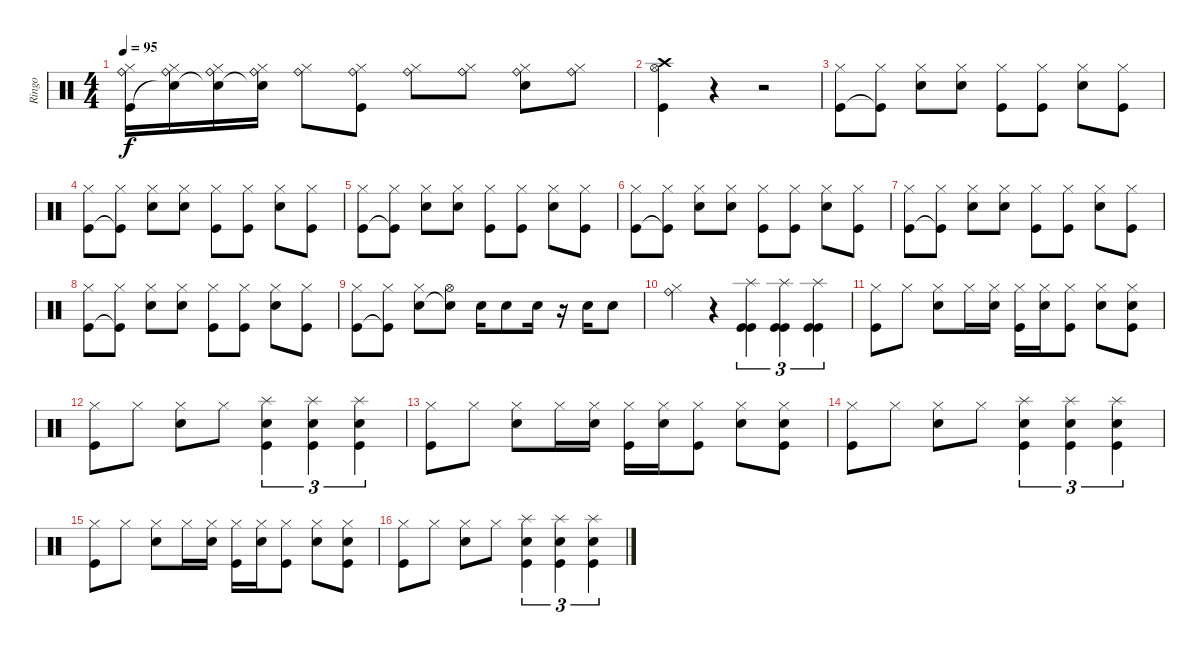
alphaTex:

\track ("Ringo" "Ringo") {instrument percussion}
\staff {score}
\articulation defaults
\ts (4 4)
\tempo 95
\clef neutral
\ks c
("Ride (bell)" "Hi-Hat (closed)" "Kick (hit)").16{dy f} ("Ride (bell)" "Hi-Hat (closed)" "Snare (hit)"{t}).16 ("Ride (bell)" "Hi-Hat (closed)" "Snare (hit)"{t}).16 ("Ride (bell)" "Hi-Hat (closed)" "Snare (hit)"{t}).16 ("Ride (bell)" "Hi-Hat (closed)").8 ("Ride (bell)" "Hi-Hat (closed)" "Kick (hit)").8 ("Ride (bell)" "Hi-Hat (closed)").8 ("Ride (bell)" "Hi-Hat (closed)").8 ("Ride (bell)" "Hi-Hat (closed)" "Snare (hit) 2").8 ("Ride (bell)" "Hi-Hat (closed)").8 |
("Crash high (hit)" "Hi-Hat (open)" "Kick (hit)").4 r.4 r.2 |
("Hi-Hat (closed)" "Kick (hit)").8 ("Hi-Hat (closed)" "Kick (hit)"{t}).8 ("Hi-Hat (closed)" "Snare (hit) 2").8 ("Hi-Hat (closed)" "Snare (hit) 2").8 ("Hi-Hat (closed)" "Kick (hit)").8 ("Hi-Hat (closed)" "Kick (hit)").8 ("Hi-Hat (closed)" "Snare (hit) 2").8 ("Hi-Hat (closed)" "Kick (hit)").8 |
("Hi-Hat (closed)" "Kick (hit)").8 ("Hi-Hat (closed)" "Kick (hit)"{t}).8 ("Hi-Hat (closed)" "Snare (hit) 2").8 ("Hi-Hat (closed)" "Snare (hit) 2").8 ("Hi-Hat (closed)" "Kick (hit)").8 ("Hi-Hat (closed)" "Kick (hit)").8 ("Hi-Hat (closed)" "Snare (hit) 2").8 ("Hi-Hat (closed)" "Kick (hit)").8 |
("Hi-Hat (closed)" "Kick (hit)").8 ("Hi-Hat (closed)" "Kick (hit)"{t}).8 ("Hi-Hat (closed)" "Snare (hit) 2").8 ("Hi-Hat (closed)" "Snare (hit) 2").8 ("Hi-Hat (closed)" "Kick (hit)").8 ("Hi-Hat (closed)" "Kick (hit)").8 ("Hi-Hat (closed)" "Snare (hit) 2").8 ("Hi-Hat (closed)" "Kick (hit)").8 |
("Hi-Hat (closed)" "Kick (hit)").8 ("Hi-Hat (closed)" "Kick (hit)"{t}).8 ("Hi-Hat (closed)" "Snare (hit) 2").8 ("Hi-Hat (closed)" "Snare (hit) 2").8 ("Hi-Hat (closed)" "Kick (hit)").8 ("Hi-Hat (closed)" "Kick (hit)").8 ("Hi-Hat (closed)" "Snare (hit) 2").8 ("Hi-Hat (closed)" "Kick (hit)").8 |
("Hi-Hat (closed)" "Kick (hit)").8 ("Hi-Hat (closed)" "Kick (hit)"{t}).8 ("Hi-Hat (closed)" "Snare (hit) 2").8 ("Hi-Hat (closed)" "Snare (hit) 2").8 ("Hi-Hat (closed)" "Kick (hit)").8 ("Hi-Hat (closed)" "Kick (hit)").8 ("Hi-Hat (closed)" "Snare (hit) 2").8 ("Hi-Hat (closed)" "Kick (hit)").8 |
("Hi-Hat (closed)" "Kick (hit)").8 ("Hi-Hat (closed)" "Kick (hit)"{t}).8 ("Hi-Hat (closed)" "Snare (hit) 2").8 ("Hi-Hat (closed)" "Snare (hit) 2").8 ("Hi-Hat (closed)" "Kick (hit)").8 ("Hi-Hat (closed)" "Kick (hit)").8 ("Hi-Hat (closed)" "Snare (hit) 2").8 ("Hi-Hat (closed)" "Kick (hit)").8 |
("Hi-Hat (closed)" "Kick (hit)").8 ("Hi-Hat (closed)" "Kick (hit)"{t}).8 ("Hi-Hat (closed)" "Snare (hit) 2").8 ("Hi-Hat (open)" "Snare (hit) 2"{t}).8 "Snare (hit) 2".16 "Snare (hit) 2".8 "Snare (hit) 2".16 r.16 "Snare (hit) 2".16 "Snare (hit) 2".8 |
("Ride (bell)" "Hi-Hat (closed)").4 r.4 ("Splash (hit)" "Kick (hit)" "Kick (hit)").4{tu (3 2)} ("Splash (hit)" "Kick (hit)" "Kick (hit)").4{tu (3 2)} ("Splash (hit)" "Kick (hit)" "Kick (hit)").4{tu (3 2)} |
("Hi-Hat (closed)" "Kick (hit)").8{volume 13} "Hi-Hat (closed)".8 ("Hi-Hat (closed)" "Snare (hit) 2").8 "Hi-Hat (closed)".16 ("Hi-Hat (closed)" "Snare (hit) 2").16 ("Hi-Hat (closed)" "Kick (hit)").16 ("Hi-Hat (closed)" "Snare (hit) 2").16 ("Hi-Hat (closed)" "Kick (hit)").8 ("Hi-Hat (closed)" "Snare (hit) 2").8 ("Hi-Hat (closed)" "Snare (hit) 2" "Kick (hit)").8 |
("Hi-Hat (closed)" "Kick (hit)").8 "Hi-Hat (closed)".8 ("Hi-Hat (closed)" "Snare (hit) 2").8 "Hi-Hat (closed)".8 ("Splash (hit)" "Snare (hit) 2" "Kick (hit)").4{tu (3 2)} ("Splash (hit)" "Snare (hit) 2" "Kick (hit)").4{tu (3 2)} ("Splash (hit)" "Snare (hit) 2" "Kick (hit)").4{tu (3 2)} |
("Hi-Hat (closed)" "Kick (hit)").8 "Hi-Hat (closed)".8 ("Hi-Hat (closed)" "Snare (hit) 2").8 "Hi-Hat (closed)".16 ("Hi-Hat (closed)" "Snare (hit) 2").16 ("Hi-Hat (closed)" "Kick (hit)").16 ("Hi-Hat (closed)" "Snare (hit) 2").16 ("Hi-Hat (closed)" "Kick (hit)").8 ("Hi-Hat (closed)" "Snare (hit) 2").8 ("Hi-Hat (closed)" "Snare (hit) 2" "Kick (hit)").8 |
("Hi-Hat (closed)" "Kick (hit)").8 "Hi-Hat (closed)".8 ("Hi-Hat (closed)" "Snare (hit) 2").8 "Hi-Hat (closed)".8 ("Splash (hit)" "Snare (hit) 2" "Kick (hit)").4{tu (3 2)} ("Splash (hit)" "Snare (hit) 2" "Kick (hit)").4{tu (3 2)} ("Splash (hit)" "Snare (hit) 2" "Kick (hit)").4{tu (3 2)} |
("Hi-Hat (closed)" "Kick (hit)").8 "Hi-Hat (closed)".8 ("Hi-Hat (closed)" "Snare (hit) 2").8 "Hi-Hat (closed)".16 ("Hi-Hat (closed)" "Snare (hit) 2").16 ("Hi-Hat (closed)" "Kick (hit)").16 ("Hi-Hat (closed)" "Snare (hit) 2").16 ("Hi-Hat (closed)" "Kick (hit)").8 ("Hi-Hat (closed)" "Snare (hit) 2").8 ("Hi-Hat (closed)" "Snare (hit) 2" "Kick (hit)").8 |
("Hi-Hat (closed)" "Kick (hit)").8 "Hi-Hat (closed)".8 ("Hi-Hat (closed)" "Snare (hit) 2").8 "Hi-Hat (closed)".8 ("Splash (hit)" "Snare (hit) 2" "Kick (hit)").4{tu (3 2)} ("Splash (hit)" "Snare (hit) 2" "Kick (hit)").4{tu (3 2)} ("Splash (hit)" "Snare (hit) 2" "Kick (hit)").4{tu (3 2)}
